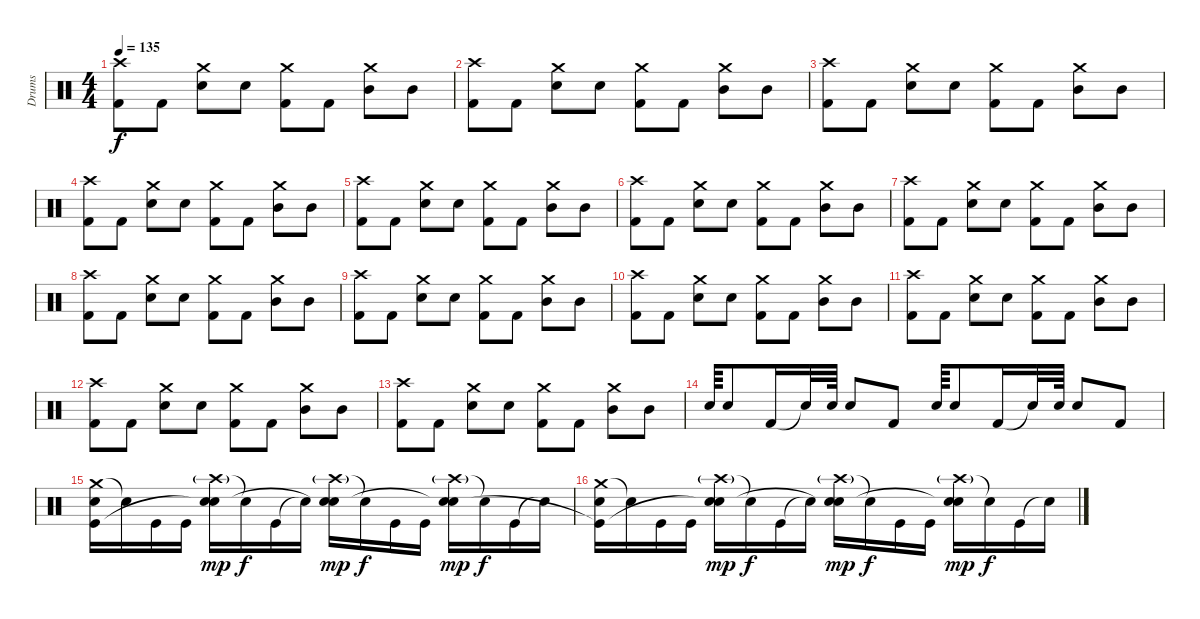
\track ("Drums" "Drums") {instrument percussion}
\staff {score}
\articulation defaults
\ts (4 4)
\tempo 135
\clef neutral
\ks c
("Kick (hit) 2" "Crash high (hit)").8{dy f} "Kick (hit) 2".8 ("Snare (hit) 2" "Crash medium (hit)").8 "Snare (hit) 2".8 ("Kick (hit) 2" "Crash medium (hit)").8 "Kick (hit) 2".8 ("Mid Tom (hit)" "Crash medium (hit)").8 "Mid Tom (hit)".8 |
("Kick (hit) 2" "Crash high (hit)").8 "Kick (hit) 2".8 ("Snare (hit) 2" "Crash medium (hit)").8 "Snare (hit) 2".8 ("Kick (hit) 2" "Crash medium (hit)").8 "Kick (hit) 2".8 ("Mid Tom (hit)" "Crash medium (hit)").8 "Mid Tom (hit)".8 |
("Kick (hit) 2" "Crash high (hit)").8 "Kick (hit) 2".8 ("Snare (hit) 2" "Crash medium (hit)").8 "Snare (hit) 2".8 ("Kick (hit) 2" "Crash medium (hit)").8 "Kick (hit) 2".8 ("Mid Tom (hit)" "Crash medium (hit)").8 "Mid Tom (hit)".8 |
("Kick (hit) 2" "Crash high (hit)").8 "Kick (hit) 2".8 ("Snare (hit) 2" "Crash medium (hit)").8 "Snare (hit) 2".8 ("Kick (hit) 2" "Crash medium (hit)").8 "Kick (hit) 2".8 ("Mid Tom (hit)" "Crash medium (hit)").8 "Mid Tom (hit)".8 |
("Kick (hit) 2" "Crash high (hit)").8 "Kick (hit) 2".8 ("Snare (hit) 2" "Crash medium (hit)").8 "Snare (hit) 2".8 ("Kick (hit) 2" "Crash medium (hit)").8 "Kick (hit) 2".8 ("Mid Tom (hit)" "Crash medium (hit)").8 "Mid Tom (hit)".8 |
("Kick (hit) 2" "Crash high (hit)").8 "Kick (hit) 2".8 ("Snare (hit) 2" "Crash medium (hit)").8 "Snare (hit) 2".8 ("Kick (hit) 2" "Crash medium (hit)").8 "Kick (hit) 2".8 ("Mid Tom (hit)" "Crash medium (hit)").8 "Mid Tom (hit)".8 |
("Kick (hit) 2" "Crash high (hit)").8 "Kick (hit) 2".8 ("Snare (hit) 2" "Crash medium (hit)").8 "Snare (hit) 2".8 ("Kick (hit) 2" "Crash medium (hit)").8 "Kick (hit) 2".8 ("Mid Tom (hit)" "Crash medium (hit)").8 "Mid Tom (hit)".8 |
("Kick (hit) 2" "Crash high (hit)").8 "Kick (hit) 2".8 ("Snare (hit) 2" "Crash medium (hit)").8 "Snare (hit) 2".8 ("Kick (hit) 2" "Crash medium (hit)").8 "Kick (hit) 2".8 ("Mid Tom (hit)" "Crash medium (hit)").8 "Mid Tom (hit)".8 |
("Kick (hit) 2" "Crash high (hit)").8 "Kick (hit) 2".8 ("Snare (hit) 2" "Crash medium (hit)").8 "Snare (hit) 2".8 ("Kick (hit) 2" "Crash medium (hit)").8 "Kick (hit) 2".8 ("Mid Tom (hit)" "Crash medium (hit)").8 "Mid Tom (hit)".8 |
("Kick (hit) 2" "Crash high (hit)").8 "Kick (hit) 2".8 ("Snare (hit) 2" "Crash medium (hit)").8 "Snare (hit) 2".8 ("Kick (hit) 2" "Crash medium (hit)").8 "Kick (hit) 2".8 ("Mid Tom (hit)" "Crash medium (hit)").8 "Mid Tom (hit)".8 |
("Kick (hit) 2" "Crash high (hit)").8 "Kick (hit) 2".8 ("Snare (hit) 2" "Crash medium (hit)").8 "Snare (hit) 2".8 ("Kick (hit) 2" "Crash medium (hit)").8 "Kick (hit) 2".8 ("Mid Tom (hit)" "Crash medium (hit)").8 "Mid Tom (hit)".8 |
("Kick (hit) 2" "Crash high (hit)").8 "Kick (hit) 2".8 ("Snare (hit) 2" "Crash medium (hit)").8 "Snare (hit) 2".8 ("Kick (hit) 2" "Crash medium (hit)").8 "Kick (hit) 2".8 ("Mid Tom (hit)" "Crash medium (hit)").8 "Mid Tom (hit)".8 |
("Kick (hit) 2" "Crash high (hit)").8 "Kick (hit) 2".8 ("Snare (hit) 2" "Crash medium (hit)").8 "Snare (hit) 2".8 ("Kick (hit) 2" "Crash medium (hit)").8 "Kick (hit) 2".8 ("Mid Tom (hit)" "Crash medium (hit)").8 "Mid Tom (hit)".8 |
"Snare (hit) 2".64 "Snare (hit) 2".8 "Kick (hit) 2".16 "Snare (hit)"{t}.32 "Snare (hit) 2".64 "Snare (hit) 2".8 "Kick (hit) 2".8 "Snare (hit) 2".64 "Snare (hit) 2".8 "Kick (hit) 2".16 "Snare (hit)"{t}.32 "Snare (hit) 2".64 "Snare (hit) 2".8 "Kick (hit) 2".8 |
("Crash medium (hit)" "Electric Snare (hit)" "Kick (hit)").16 "Snare (hit)"{t}.16 "Kick (hit)".16 "Kick (hit)".16 ("Crash high (hit)"{g} "Electric Snare (hit)" "Snare (hit)"{t}).16{dy mp} "Snare (hit)"{t}.16{dy f} "Kick (hit)".16 "Snare (hit)"{t}.16 ("Crash high (hit)"{g} "Electric Snare (hit)" "Snare (hit)"{t}).16{dy mp} "Snare (hit)"{t}.16{dy f} "Kick (hit)".16 "Kick (hit)".16 ("Crash high (hit)"{g} "Electric Snare (hit)" "Snare (hit)"{t}).16{dy mp} "Snare (hit)"{t}.16{dy f} "Kick (hit)".16 "Snare (hit)"{t}.16 |
("Crash medium (hit)" "Electric Snare (hit)" "Kick (hit)"{t}).16 "Snare (hit)"{t}.16 "Kick (hit)".16 "Kick (hit)".16 ("Crash high (hit)"{g} "Electric Snare (hit)" "Snare (hit)"{t}).16{dy mp} "Snare (hit)"{t}.16{dy f} "Kick (hit)".16 "Snare (hit)"{t}.16 ("Crash high (hit)"{g} "Electric Snare (hit)" "Snare (hit)"{t}).16{dy mp} "Snare (hit)"{t}.16{dy f} "Kick (hit)".16 "Kick (hit)".16 ("Crash high (hit)"{g} "Electric Snare (hit)" "Snare (hit)"{t}).16{dy mp} "Snare (hit)"{t}.16{dy f} "Kick (hit)".16 "Snare (hit)"{t}.16
